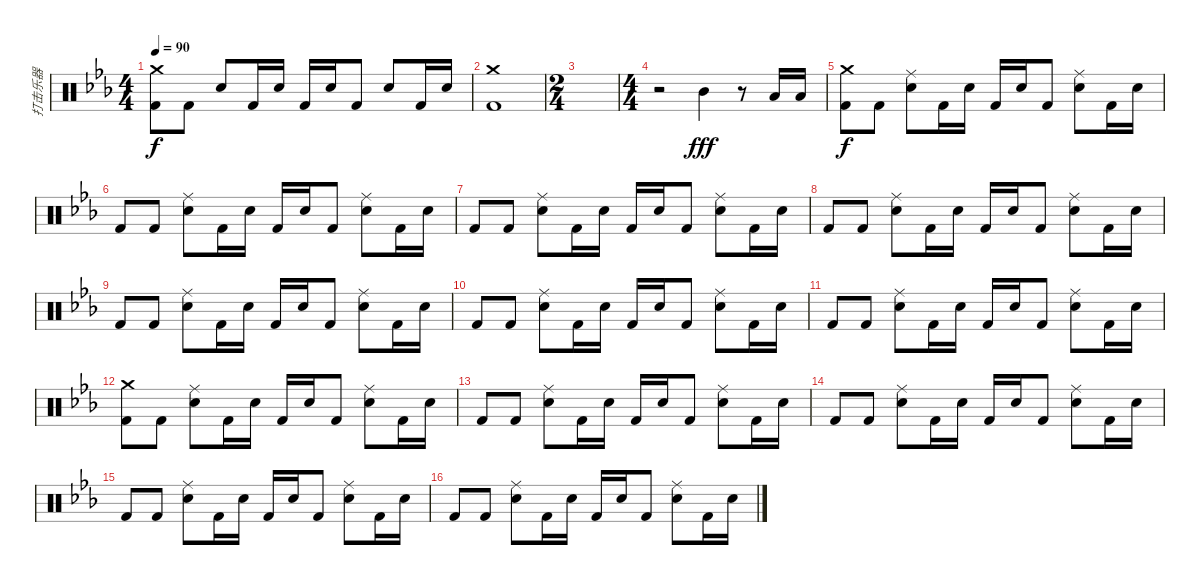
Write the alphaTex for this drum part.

\track ("打击乐器" "打击乐器") {instrument percussion}
\staff {score}
\articulation defaults
\ts (4 4)
\tempo 90
\clef neutral
\ks eb
("Crash medium (hit)" "Kick (hit) 2").8{dy f} "Kick (hit) 2".8 "Electric Snare (hit)".8 "Kick (hit) 2".16 "Electric Snare (hit)".16 "Kick (hit) 2".16 "Electric Snare (hit)".16 "Kick (hit) 2".8 "Electric Snare (hit)".8 "Kick (hit) 2".16 "Electric Snare (hit)".16 |
("Crash medium (hit)" "Kick (hit) 2").1 |
\ts (2 4)
|
\ts (4 4)
r.2 "Mid Tom (hit)".4{dy fff volume 12} r.8 "Low Tom (hit)".16 "Low Tom (hit)".16 |
("Crash medium (hit)" "Kick (hit) 2").8{dy f} "Kick (hit) 2".8 ("Ride (middle)" "Electric Snare (hit)").8 "Kick (hit) 2".16 "Electric Snare (hit)".16 "Kick (hit) 2".16 "Electric Snare (hit)".16 "Kick (hit) 2".8 ("Ride (middle)" "Electric Snare (hit)").8 "Kick (hit) 2".16 "Electric Snare (hit)".16 |
"Kick (hit) 2".8 "Kick (hit) 2".8 ("Ride (middle)" "Electric Snare (hit)").8 "Kick (hit) 2".16 "Electric Snare (hit)".16 "Kick (hit) 2".16 "Electric Snare (hit)".16 "Kick (hit) 2".8 ("Ride (middle)" "Electric Snare (hit)").8 "Kick (hit) 2".16 "Electric Snare (hit)".16 |
"Kick (hit) 2".8 "Kick (hit) 2".8 ("Ride (middle)" "Electric Snare (hit)").8 "Kick (hit) 2".16 "Electric Snare (hit)".16 "Kick (hit) 2".16 "Electric Snare (hit)".16 "Kick (hit) 2".8 ("Ride (middle)" "Electric Snare (hit)").8 "Kick (hit) 2".16 "Electric Snare (hit)".16 |
"Kick (hit) 2".8 "Kick (hit) 2".8 ("Ride (middle)" "Electric Snare (hit)").8 "Kick (hit) 2".16 "Electric Snare (hit)".16 "Kick (hit) 2".16 "Electric Snare (hit)".16 "Kick (hit) 2".8 ("Ride (middle)" "Electric Snare (hit)").8 "Kick (hit) 2".16 "Electric Snare (hit)".16 |
"Kick (hit) 2".8 "Kick (hit) 2".8 ("Ride (middle)" "Electric Snare (hit)").8 "Kick (hit) 2".16 "Electric Snare (hit)".16 "Kick (hit) 2".16 "Electric Snare (hit)".16 "Kick (hit) 2".8 ("Ride (middle)" "Electric Snare (hit)").8 "Kick (hit) 2".16 "Electric Snare (hit)".16 |
"Kick (hit) 2".8 "Kick (hit) 2".8 ("Ride (middle)" "Electric Snare (hit)").8 "Kick (hit) 2".16 "Electric Snare (hit)".16 "Kick (hit) 2".16 "Electric Snare (hit)".16 "Kick (hit) 2".8 ("Ride (middle)" "Electric Snare (hit)").8 "Kick (hit) 2".16 "Electric Snare (hit)".16 |
"Kick (hit) 2".8 "Kick (hit) 2".8 ("Ride (middle)" "Electric Snare (hit)").8 "Kick (hit) 2".16 "Electric Snare (hit)".16 "Kick (hit) 2".16 "Electric Snare (hit)".16 "Kick (hit) 2".8 ("Ride (middle)" "Electric Snare (hit)").8 "Kick (hit) 2".16 "Electric Snare (hit)".16 |
("Crash medium (hit)" "Kick (hit) 2").8 "Kick (hit) 2".8 ("Ride (middle)" "Electric Snare (hit)").8 "Kick (hit) 2".16 "Electric Snare (hit)".16 "Kick (hit) 2".16 "Electric Snare (hit)".16 "Kick (hit) 2".8 ("Ride (middle)" "Electric Snare (hit)").8 "Kick (hit) 2".16 "Electric Snare (hit)".16 |
"Kick (hit) 2".8 "Kick (hit) 2".8 ("Ride (middle)" "Electric Snare (hit)").8 "Kick (hit) 2".16 "Electric Snare (hit)".16 "Kick (hit) 2".16 "Electric Snare (hit)".16 "Kick (hit) 2".8 ("Ride (middle)" "Electric Snare (hit)").8 "Kick (hit) 2".16 "Electric Snare (hit)".16 |
"Kick (hit) 2".8 "Kick (hit) 2".8 ("Ride (middle)" "Electric Snare (hit)").8 "Kick (hit) 2".16 "Electric Snare (hit)".16 "Kick (hit) 2".16 "Electric Snare (hit)".16 "Kick (hit) 2".8 ("Ride (middle)" "Electric Snare (hit)").8 "Kick (hit) 2".16 "Electric Snare (hit)".16 |
"Kick (hit) 2".8 "Kick (hit) 2".8 ("Ride (middle)" "Electric Snare (hit)").8 "Kick (hit) 2".16 "Electric Snare (hit)".16 "Kick (hit) 2".16 "Electric Snare (hit)".16 "Kick (hit) 2".8 ("Ride (middle)" "Electric Snare (hit)").8 "Kick (hit) 2".16 "Electric Snare (hit)".16 |
"Kick (hit) 2".8 "Kick (hit) 2".8 ("Ride (middle)" "Electric Snare (hit)").8 "Kick (hit) 2".16 "Electric Snare (hit)".16 "Kick (hit) 2".16 "Electric Snare (hit)".16 "Kick (hit) 2".8 ("Ride (middle)" "Electric Snare (hit)").8 "Kick (hit) 2".16 "Electric Snare (hit)".16
